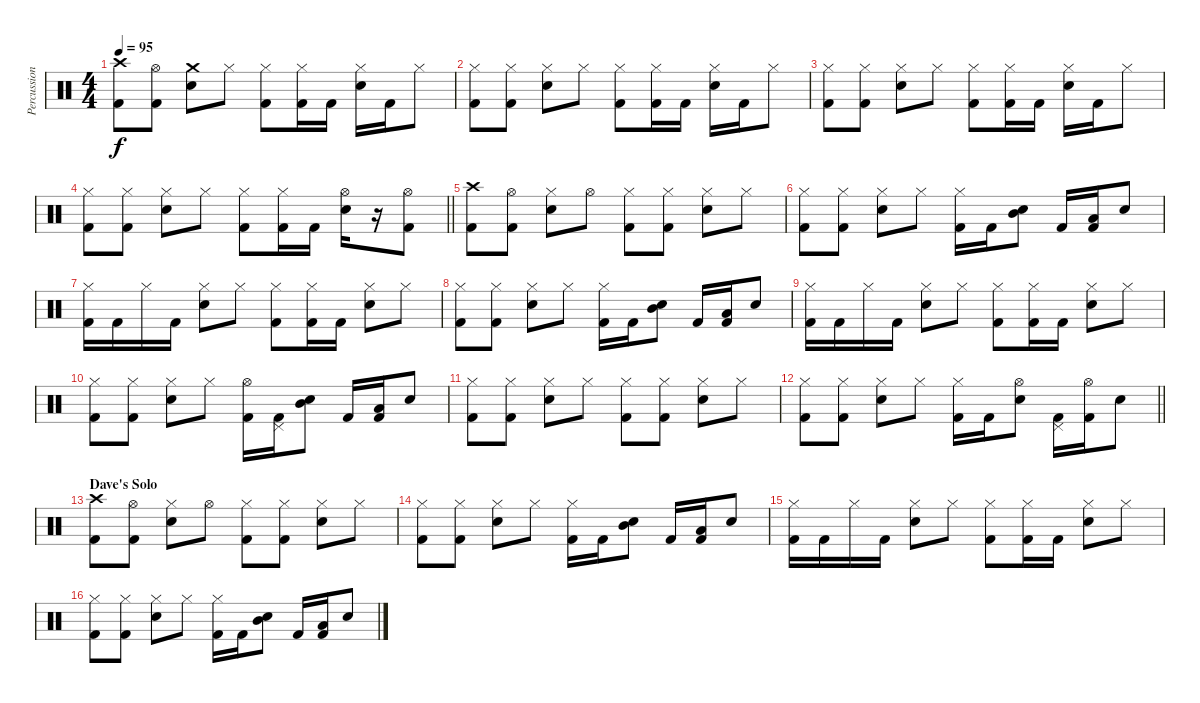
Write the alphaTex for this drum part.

\track ("Percussion" "Percussion") {instrument percussion}
\staff {score}
\articulation defaults
\ts (4 4)
\tempo 95
\clef neutral
\ks c
("Crash high (hit)" "Kick (hit) 2").8{dy f} ("Hi-Hat (open)" "Kick (hit) 2").8 ("Crash medium (hit)" "Snare (hit) 2").8 "Hi-Hat (closed)".8 ("Hi-Hat (closed)" "Kick (hit) 2").8 ("Hi-Hat (closed)" "Kick (hit) 2").16 "Kick (hit) 2".16 ("Hi-Hat (closed)" "Snare (hit) 2").16 "Kick (hit) 2".16 "Hi-Hat (closed)".8 |
("Hi-Hat (closed)" "Kick (hit) 2").8 ("Hi-Hat (closed)" "Kick (hit) 2").8 ("Hi-Hat (closed)" "Snare (hit) 2").8 "Hi-Hat (closed)".8 ("Hi-Hat (closed)" "Kick (hit) 2").8 ("Hi-Hat (closed)" "Kick (hit) 2").16 "Kick (hit) 2".16 ("Hi-Hat (closed)" "Snare (hit) 2").16 "Kick (hit) 2".16 "Hi-Hat (closed)".8 |
("Hi-Hat (closed)" "Kick (hit) 2").8 ("Hi-Hat (closed)" "Kick (hit) 2").8 ("Hi-Hat (closed)" "Snare (hit) 2").8 "Hi-Hat (closed)".8 ("Hi-Hat (closed)" "Kick (hit) 2").8 ("Hi-Hat (closed)" "Kick (hit) 2").16 "Kick (hit) 2".16 ("Hi-Hat (closed)" "Snare (hit) 2").16 "Kick (hit) 2".16 "Hi-Hat (closed)".8 |
\barLineRight lightlight
("Hi-Hat (closed)" "Kick (hit) 2").8 ("Hi-Hat (closed)" "Kick (hit) 2").8 ("Hi-Hat (closed)" "Snare (hit) 2").8 "Hi-Hat (closed)".8 ("Hi-Hat (closed)" "Kick (hit) 2").8 ("Hi-Hat (closed)" "Kick (hit) 2").16 "Kick (hit) 2".16 ("Hi-Hat (open)" "Snare (hit) 2").16 r.16 ("Hi-Hat (open)" "Kick (hit) 2").8 |
("Crash high (hit)" "Kick (hit) 2").8 ("Hi-Hat (open)" "Kick (hit) 2").8 ("Hi-Hat (closed)" "Snare (hit) 2").8 "Hi-Hat (open)".8 ("Hi-Hat (closed)" "Kick (hit) 2").8 ("Hi-Hat (closed)" "Kick (hit) 2").8 ("Hi-Hat (closed)" "Snare (hit) 2").8 "Hi-Hat (closed)".8 |
("Hi-Hat (closed)" "Kick (hit) 2").8 ("Hi-Hat (closed)" "Kick (hit) 2").8 ("Hi-Hat (closed)" "Snare (hit) 2").8 "Hi-Hat (closed)".8 ("Hi-Hat (closed)" "Kick (hit) 2").16 "Kick (hit) 2".16 ("Mid Tom (hit)" "Snare (hit) 2").8 "Kick (hit) 2".16 ("Low Tom (hit)" "Kick (hit) 2").16 "Snare (hit) 2".8 |
("Hi-Hat (closed)" "Kick (hit) 2").16 "Kick (hit) 2".16 "Hi-Hat (closed)".16 "Kick (hit) 2".16 ("Hi-Hat (closed)" "Snare (hit) 2").8 "Hi-Hat (closed)".8 ("Hi-Hat (closed)" "Kick (hit) 2").8 ("Hi-Hat (closed)" "Kick (hit) 2").16 "Kick (hit) 2".16 ("Hi-Hat (closed)" "Snare (hit) 2").8 "Hi-Hat (closed)".8 |
("Hi-Hat (closed)" "Kick (hit) 2").8 ("Hi-Hat (closed)" "Kick (hit) 2").8 ("Hi-Hat (closed)" "Snare (hit) 2").8 "Hi-Hat (closed)".8 ("Hi-Hat (closed)" "Kick (hit) 2").16 "Kick (hit) 2".16 ("Mid Tom (hit)" "Snare (hit) 2").8 "Kick (hit) 2".16 ("Low Tom (hit)" "Kick (hit) 2").16 "Snare (hit) 2".8 |
("Hi-Hat (closed)" "Kick (hit) 2").16 "Kick (hit) 2".16 "Hi-Hat (closed)".16 "Kick (hit) 2".16 ("Hi-Hat (closed)" "Snare (hit) 2").8 "Hi-Hat (closed)".8 ("Hi-Hat (closed)" "Kick (hit) 2").8 ("Hi-Hat (closed)" "Kick (hit) 2").16 "Kick (hit) 2".16 ("Hi-Hat (closed)" "Snare (hit) 2").8 "Hi-Hat (closed)".8 |
("Hi-Hat (closed)" "Kick (hit) 2").8 ("Hi-Hat (closed)" "Kick (hit) 2").8 ("Hi-Hat (closed)" "Snare (hit) 2").8 "Hi-Hat (closed)".8 ("Hi-Hat (open)" "Kick (hit) 2").16 ("Pedal Hi-Hat (hit)" "Kick (hit) 2").16 ("Mid Tom (hit)" "Snare (hit) 2").8 "Kick (hit) 2".16 ("Low Tom (hit)" "Kick (hit) 2").16 "Snare (hit) 2".8 |
("Hi-Hat (closed)" "Kick (hit) 2").8 ("Hi-Hat (closed)" "Kick (hit) 2").8 ("Hi-Hat (closed)" "Snare (hit) 2").8 "Hi-Hat (closed)".8 ("Hi-Hat (closed)" "Kick (hit) 2").8 ("Hi-Hat (closed)" "Kick (hit) 2").8 ("Hi-Hat (closed)" "Snare (hit) 2").8 "Hi-Hat (closed)".8 |
\barLineRight lightlight
("Hi-Hat (closed)" "Kick (hit) 2").8 ("Hi-Hat (closed)" "Kick (hit) 2").8 ("Hi-Hat (closed)" "Snare (hit) 2").8 "Hi-Hat (closed)".8 ("Hi-Hat (closed)" "Kick (hit) 2").16 "Kick (hit) 2".16 ("Hi-Hat (open)" "Snare (hit) 2").8 ("Pedal Hi-Hat (hit)" "Kick (hit) 2").16 ("Hi-Hat (open)" "Kick (hit) 2").16 "Snare (hit) 2".8 |
\section ("" "Dave's Solo")
("Crash high (hit)" "Kick (hit) 2").8 ("Hi-Hat (open)" "Kick (hit) 2").8 ("Hi-Hat (closed)" "Snare (hit) 2").8 "Hi-Hat (open)".8 ("Hi-Hat (closed)" "Kick (hit) 2").8 ("Hi-Hat (closed)" "Kick (hit) 2").8 ("Hi-Hat (closed)" "Snare (hit) 2").8 "Hi-Hat (closed)".8 |
("Hi-Hat (closed)" "Kick (hit) 2").8 ("Hi-Hat (closed)" "Kick (hit) 2").8 ("Hi-Hat (closed)" "Snare (hit) 2").8 "Hi-Hat (closed)".8 ("Hi-Hat (closed)" "Kick (hit) 2").16 "Kick (hit) 2".16 ("Mid Tom (hit)" "Snare (hit) 2").8 "Kick (hit) 2".16 ("Low Tom (hit)" "Kick (hit) 2").16 "Snare (hit) 2".8 |
("Hi-Hat (closed)" "Kick (hit) 2").16 "Kick (hit) 2".16 "Hi-Hat (closed)".16 "Kick (hit) 2".16 ("Hi-Hat (closed)" "Snare (hit) 2").8 "Hi-Hat (closed)".8 ("Hi-Hat (closed)" "Kick (hit) 2").8 ("Hi-Hat (closed)" "Kick (hit) 2").16 "Kick (hit) 2".16 ("Hi-Hat (closed)" "Snare (hit) 2").8 "Hi-Hat (closed)".8 |
("Hi-Hat (closed)" "Kick (hit) 2").8 ("Hi-Hat (closed)" "Kick (hit) 2").8 ("Hi-Hat (closed)" "Snare (hit) 2").8 "Hi-Hat (closed)".8 ("Hi-Hat (closed)" "Kick (hit) 2").16 "Kick (hit) 2".16 ("Mid Tom (hit)" "Snare (hit) 2").8 "Kick (hit) 2".16 ("Low Tom (hit)" "Kick (hit) 2").16 "Snare (hit) 2".8
